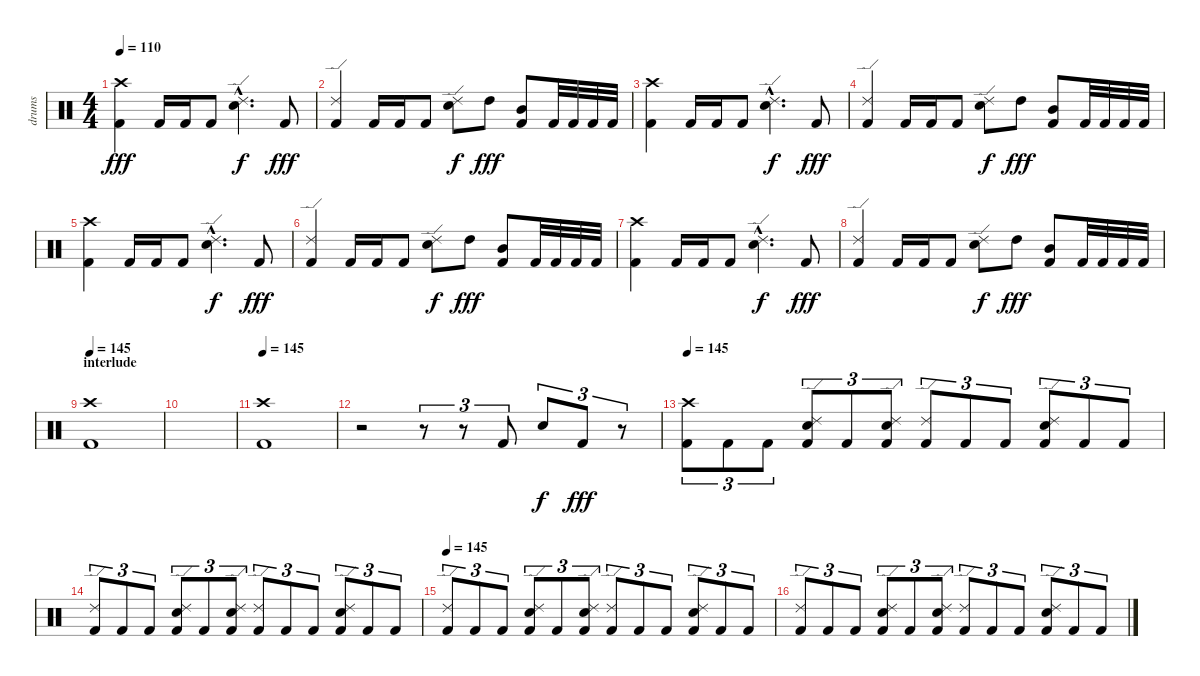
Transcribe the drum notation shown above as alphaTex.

\track ("drums" "drums") {instrument percussion}
\staff {score}
\articulation defaults
\ts (4 4)
\tempo 110
\clef neutral
\ks c
("Crash high (hit)" "Kick (hit) 2").4{dy fff} "Kick (hit) 2".16 "Kick (hit) 2".16 "Kick (hit) 2".8 ("Ride (edge) 2"{hac} "Snare (hit) 2"{hac}).4{d dy f} "Kick (hit) 2".8{dy fff} |
("Ride (edge) 2" "Kick (hit) 2").4 "Kick (hit) 2".16 "Kick (hit) 2".16 "Kick (hit) 2".8 ("Ride (edge) 2" "Snare (hit) 2").8{dy f} "High Tom (hit)".8{dy fff} ("Mid Tom (hit)" "Kick (hit) 2").8 "Kick (hit) 2".32 "Kick (hit) 2".32 "Kick (hit) 2".32 "Kick (hit) 2".32 |
("Crash high (hit)" "Kick (hit) 2").4 "Kick (hit) 2".16 "Kick (hit) 2".16 "Kick (hit) 2".8 ("Ride (edge) 2"{hac} "Snare (hit) 2"{hac}).4{d dy f} "Kick (hit) 2".8{dy fff} |
("Ride (edge) 2" "Kick (hit) 2").4 "Kick (hit) 2".16 "Kick (hit) 2".16 "Kick (hit) 2".8 ("Ride (edge) 2" "Snare (hit) 2").8{dy f} "High Tom (hit)".8{dy fff} ("Mid Tom (hit)" "Kick (hit) 2").8 "Kick (hit) 2".32 "Kick (hit) 2".32 "Kick (hit) 2".32 "Kick (hit) 2".32 |
("Crash high (hit)" "Kick (hit) 2").4 "Kick (hit) 2".16 "Kick (hit) 2".16 "Kick (hit) 2".8 ("Ride (edge) 2"{hac} "Snare (hit) 2"{hac}).4{d dy f} "Kick (hit) 2".8{dy fff} |
("Ride (edge) 2" "Kick (hit) 2").4 "Kick (hit) 2".16 "Kick (hit) 2".16 "Kick (hit) 2".8 ("Ride (edge) 2" "Snare (hit) 2").8{dy f} "High Tom (hit)".8{dy fff} ("Mid Tom (hit)" "Kick (hit) 2").8 "Kick (hit) 2".32 "Kick (hit) 2".32 "Kick (hit) 2".32 "Kick (hit) 2".32 |
("Crash high (hit)" "Kick (hit) 2").4 "Kick (hit) 2".16 "Kick (hit) 2".16 "Kick (hit) 2".8 ("Ride (edge) 2"{hac} "Snare (hit) 2"{hac}).4{d dy f} "Kick (hit) 2".8{dy fff} |
("Ride (edge) 2" "Kick (hit) 2").4 "Kick (hit) 2".16 "Kick (hit) 2".16 "Kick (hit) 2".8 ("Ride (edge) 2" "Snare (hit) 2").8{dy f} "High Tom (hit)".8{dy fff} ("Mid Tom (hit)" "Kick (hit) 2").8 "Kick (hit) 2".32 "Kick (hit) 2".32 "Kick (hit) 2".32 "Kick (hit) 2".32 |
\section ("" "interlude")
\tempo 145
("Crash high (hit)" "Kick (hit) 2").1 |
|
\tempo 145
("Crash high (hit)" "Kick (hit) 2").1 |
r.2 r.8{tu (3 2)} r.8{tu (3 2)} "Kick (hit) 2".8{tu (3 2)} "Snare (hit) 2".8{tu (3 2) dy f} "Kick (hit) 2".8{tu (3 2) dy fff} r.8{tu (3 2)} |
\tempo 145
("Crash high (hit)" "Kick (hit) 2").8{tu (3 2)} "Kick (hit) 2".8{tu (3 2)} "Kick (hit) 2".8{tu (3 2)} ("Ride (edge) 2" "Snare (hit) 2" "Kick (hit) 2").8{tu (3 2)} "Kick (hit) 2".8{tu (3 2)} ("Ride (edge) 2" "Snare (hit) 2" "Kick (hit) 2").8{tu (3 2)} ("Ride (edge) 2" "Kick (hit) 2").8{tu (3 2)} "Kick (hit) 2".8{tu (3 2)} "Kick (hit) 2".8{tu (3 2)} ("Ride (edge) 2" "Snare (hit) 2" "Kick (hit) 2").8{tu (3 2)} "Kick (hit) 2".8{tu (3 2)} "Kick (hit) 2".8{tu (3 2)} |
("Ride (edge) 2" "Kick (hit) 2").8{tu (3 2)} "Kick (hit) 2".8{tu (3 2)} "Kick (hit) 2".8{tu (3 2)} ("Ride (edge) 2" "Snare (hit) 2" "Kick (hit) 2").8{tu (3 2)} "Kick (hit) 2".8{tu (3 2)} ("Ride (edge) 2" "Snare (hit) 2" "Kick (hit) 2").8{tu (3 2)} ("Ride (edge) 2" "Kick (hit) 2").8{tu (3 2)} "Kick (hit) 2".8{tu (3 2)} "Kick (hit) 2".8{tu (3 2)} ("Ride (edge) 2" "Snare (hit) 2" "Kick (hit) 2").8{tu (3 2)} "Kick (hit) 2".8{tu (3 2)} "Kick (hit) 2".8{tu (3 2)} |
\tempo 145
("Ride (edge) 2" "Kick (hit) 2").8{tu (3 2)} "Kick (hit) 2".8{tu (3 2)} "Kick (hit) 2".8{tu (3 2)} ("Ride (edge) 2" "Snare (hit) 2" "Kick (hit) 2").8{tu (3 2)} "Kick (hit) 2".8{tu (3 2)} ("Ride (edge) 2" "Snare (hit) 2" "Kick (hit) 2").8{tu (3 2)} ("Ride (edge) 2" "Kick (hit) 2").8{tu (3 2)} "Kick (hit) 2".8{tu (3 2)} "Kick (hit) 2".8{tu (3 2)} ("Ride (edge) 2" "Snare (hit) 2" "Kick (hit) 2").8{tu (3 2)} "Kick (hit) 2".8{tu (3 2)} "Kick (hit) 2".8{tu (3 2)} |
("Ride (edge) 2" "Kick (hit) 2").8{tu (3 2)} "Kick (hit) 2".8{tu (3 2)} "Kick (hit) 2".8{tu (3 2)} ("Ride (edge) 2" "Snare (hit) 2" "Kick (hit) 2").8{tu (3 2)} "Kick (hit) 2".8{tu (3 2)} ("Ride (edge) 2" "Snare (hit) 2" "Kick (hit) 2").8{tu (3 2)} ("Ride (edge) 2" "Kick (hit) 2").8{tu (3 2)} "Kick (hit) 2".8{tu (3 2)} "Kick (hit) 2".8{tu (3 2)} ("Ride (edge) 2" "Snare (hit) 2" "Kick (hit) 2").8{tu (3 2)} "Kick (hit) 2".8{tu (3 2)} "Kick (hit) 2".8{tu (3 2)}
